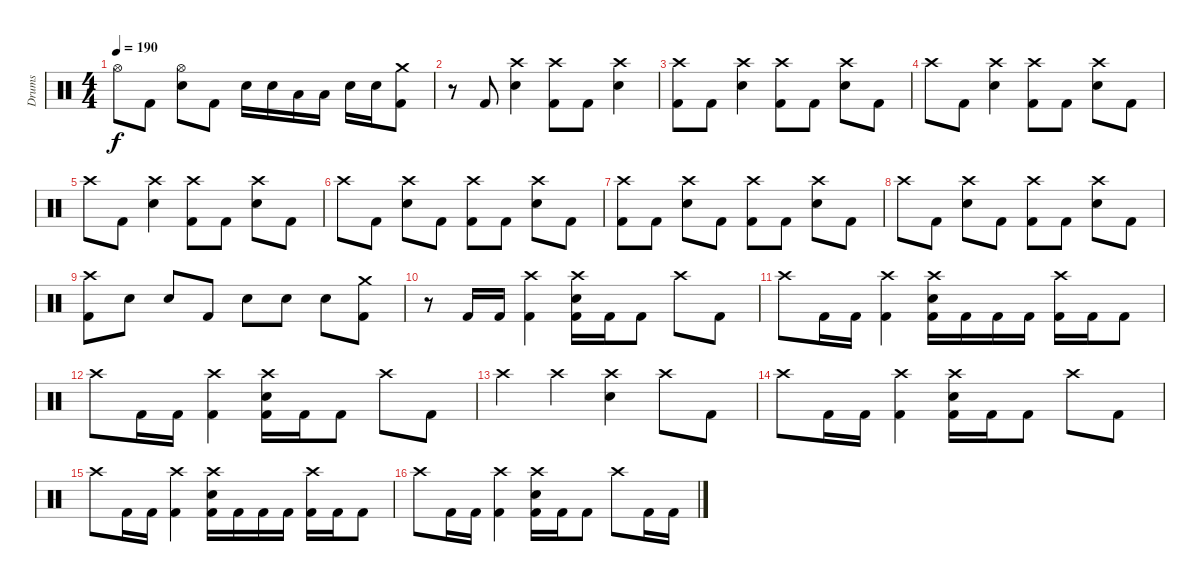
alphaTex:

\track ("Drums" "Drums") {instrument percussion}
\staff {score}
\articulation defaults
\ts (4 4)
\tempo 190
\clef neutral
\ks c "Hi-Hat (open)".8{dy f} "Kick (hit) 2".8
("Hi-Hat (open)" "Electric Snare (hit)").8 "Kick (hit) 2".8 "Electric Snare (hit)".16 "Electric Snare (hit)".16 "Low Tom (hit)".16 "Low Tom (hit)".16 "Electric Snare (hit)".16 "Electric Snare (hit)".16 ("Crash medium (hit)" "Kick (hit) 2").8 |
r.8 "Kick (hit) 2".8 ("Crash high (hit)" "Electric Snare (hit)").4 ("Crash high (hit)" "Kick (hit) 2").8 "Kick (hit) 2".8 ("Crash high (hit)" "Electric Snare (hit)").4 |
("Crash high (hit)" "Kick (hit) 2").8 "Kick (hit) 2".8 ("Crash high (hit)" "Electric Snare (hit)").4 ("Crash high (hit)" "Kick (hit) 2").8 "Kick (hit) 2".8 ("Crash high (hit)" "Electric Snare (hit)").8 "Kick (hit) 2".8 |
"Crash high (hit)".8 "Kick (hit) 2".8 ("Crash high (hit)" "Electric Snare (hit)").4 ("Crash high (hit)" "Kick (hit) 2").8 "Kick (hit) 2".8 ("Crash high (hit)" "Electric Snare (hit)").8 "Kick (hit) 2".8 |
"Crash high (hit)".8 "Kick (hit) 2".8 ("Crash high (hit)" "Electric Snare (hit)").4 ("Crash high (hit)" "Kick (hit) 2").8 "Kick (hit) 2".8 ("Crash high (hit)" "Electric Snare (hit)").8 "Kick (hit) 2".8 |
"Crash high (hit)".8 "Kick (hit) 2".8 ("Crash high (hit)" "Electric Snare (hit)").8 "Kick (hit) 2".8 ("Crash high (hit)" "Kick (hit) 2").8 "Kick (hit) 2".8 ("Crash high (hit)" "Electric Snare (hit)").8 "Kick (hit) 2".8 |
("Crash high (hit)" "Kick (hit) 2").8 "Kick (hit) 2".8 ("Crash high (hit)" "Electric Snare (hit)").8 "Kick (hit) 2".8 ("Crash high (hit)" "Kick (hit) 2").8 "Kick (hit) 2".8 ("Crash high (hit)" "Electric Snare (hit)").8 "Kick (hit) 2".8 |
"Crash high (hit)".8 "Kick (hit) 2".8 ("Crash high (hit)" "Electric Snare (hit)").8 "Kick (hit) 2".8 ("Crash high (hit)" "Kick (hit) 2").8 "Kick (hit) 2".8 ("Crash high (hit)" "Electric Snare (hit)").8 "Kick (hit) 2".8 |
("Crash high (hit)" "Kick (hit) 2").8 "Electric Snare (hit)".8 "Electric Snare (hit)".8 "Kick (hit) 2".8 "Electric Snare (hit)".8 "Electric Snare (hit)".8 "Electric Snare (hit)".8 ("Crash medium (hit)" "Kick (hit) 2").8 |
r.8 "Kick (hit) 2".16 "Kick (hit) 2".16 ("Crash high (hit)" "Kick (hit) 2").4 ("Crash high (hit)" "Electric Snare (hit)" "Kick (hit) 2").16 "Kick (hit) 2".16 "Kick (hit) 2".8 "Crash high (hit)".8 "Kick (hit) 2".8 |
"Crash high (hit)".8 "Kick (hit) 2".16 "Kick (hit) 2".16 ("Crash high (hit)" "Kick (hit) 2").4 ("Crash high (hit)" "Electric Snare (hit)" "Kick (hit) 2").16 "Kick (hit) 2".16 "Kick (hit) 2".16 "Kick (hit) 2".16 ("Crash high (hit)" "Kick (hit) 2").16 "Kick (hit) 2".16 "Kick (hit) 2".8 |
"Crash high (hit)".8 "Kick (hit) 2".16 "Kick (hit) 2".16 ("Crash high (hit)" "Kick (hit) 2").4 ("Crash high (hit)" "Electric Snare (hit)" "Kick (hit) 2").16 "Kick (hit) 2".16 "Kick (hit) 2".8 "Crash high (hit)".8 "Kick (hit) 2".8 |
"Crash high (hit)".4 "Crash high (hit)".4 ("Crash high (hit)" "Electric Snare (hit)").4 "Crash high (hit)".8 "Kick (hit) 2".8 |
"Crash high (hit)".8 "Kick (hit) 2".16 "Kick (hit) 2".16 ("Crash high (hit)" "Kick (hit) 2").4 ("Crash high (hit)" "Electric Snare (hit)" "Kick (hit) 2").16 "Kick (hit) 2".16 "Kick (hit) 2".8 "Crash high (hit)".8 "Kick (hit) 2".8 |
"Crash high (hit)".8 "Kick (hit) 2".16 "Kick (hit) 2".16 ("Crash high (hit)" "Kick (hit) 2").4 ("Crash high (hit)" "Electric Snare (hit)" "Kick (hit) 2").16 "Kick (hit) 2".16 "Kick (hit) 2".16 "Kick (hit) 2".16 ("Crash high (hit)" "Kick (hit) 2").16 "Kick (hit) 2".16 "Kick (hit) 2".8 |
"Crash high (hit)".8 "Kick (hit) 2".16 "Kick (hit) 2".16 ("Crash high (hit)" "Kick (hit) 2").4 ("Crash high (hit)" "Electric Snare (hit)" "Kick (hit) 2").16 "Kick (hit) 2".16 "Kick (hit) 2".8 "Crash high (hit)".8 "Kick (hit) 2".16 "Kick (hit) 2".16
